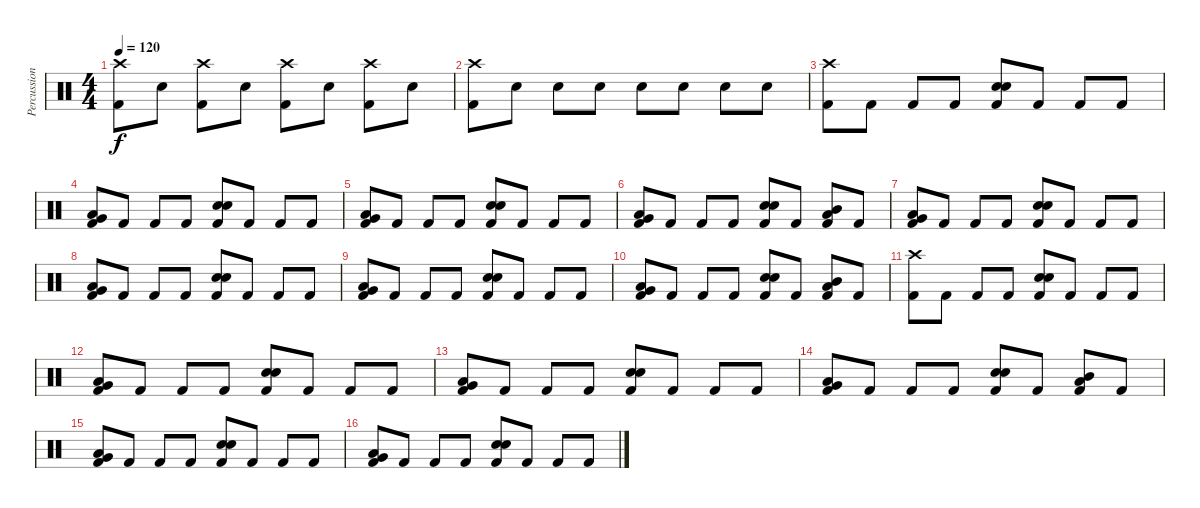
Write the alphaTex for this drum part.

\track ("Percussion" "Percussion") {instrument percussion}
\staff {score}
\articulation defaults
\ts (4 4)
\tempo 120
\clef neutral
\ks c
("Crash high (hit)" "Kick (hit) 2").8{dy f} "Electric Snare (hit)".8 ("Crash high (hit)" "Kick (hit) 2").8 "Electric Snare (hit)".8 ("Crash high (hit)" "Kick (hit) 2").8 "Electric Snare (hit)".8 ("Crash high (hit)" "Kick (hit) 2").8 "Electric Snare (hit)".8 |
("Crash high (hit)" "Kick (hit) 2").8 "Electric Snare (hit)".8 "Electric Snare (hit)".8 "Electric Snare (hit)".8 "Electric Snare (hit)".8 "Electric Snare (hit)".8 "Electric Snare (hit)".8 "Electric Snare (hit)".8 |
("Crash high (hit)" "Kick (hit) 2").8 "Kick (hit) 2".8 "Kick (hit) 2".8 "Kick (hit) 2".8 ("Electric Snare (hit)" "Electric Snare (hit)" "Kick (hit) 2").8{bu 120} "Kick (hit) 2".8 "Kick (hit) 2".8 "Kick (hit) 2".8 |
("Low Tom (hit)" "Very Low Tom (hit)" "Kick (hit) 2").8{bu 120} "Kick (hit) 2".8 "Kick (hit) 2".8 "Kick (hit) 2".8 ("Electric Snare (hit)" "Electric Snare (hit)" "Kick (hit) 2").8{bu 120} "Kick (hit) 2".8 "Kick (hit) 2".8 "Kick (hit) 2".8 |
("Low Tom (hit)" "Very Low Tom (hit)" "Kick (hit) 2").8{bu 120} "Kick (hit) 2".8 "Kick (hit) 2".8 "Kick (hit) 2".8 ("Electric Snare (hit)" "Electric Snare (hit)" "Kick (hit) 2").8{bu 120} "Kick (hit) 2".8 "Kick (hit) 2".8 "Kick (hit) 2".8 |
("Low Tom (hit)" "Very Low Tom (hit)" "Kick (hit) 2").8{bu 120} "Kick (hit) 2".8 "Kick (hit) 2".8 "Kick (hit) 2".8 ("Electric Snare (hit)" "Electric Snare (hit)" "Kick (hit) 2").8{bu 120} "Kick (hit) 2".8 ("Mid Tom (hit)" "Low Tom (hit)" "Kick (hit) 2").8{bu 120} "Kick (hit) 2".8 |
("Low Tom (hit)" "Very Low Tom (hit)" "Kick (hit) 2").8{bu 120} "Kick (hit) 2".8 "Kick (hit) 2".8 "Kick (hit) 2".8 ("Electric Snare (hit)" "Electric Snare (hit)" "Kick (hit) 2").8{bu 120} "Kick (hit) 2".8 "Kick (hit) 2".8 "Kick (hit) 2".8 |
("Low Tom (hit)" "Very Low Tom (hit)" "Kick (hit) 2").8{bu 120} "Kick (hit) 2".8 "Kick (hit) 2".8 "Kick (hit) 2".8 ("Electric Snare (hit)" "Electric Snare (hit)" "Kick (hit) 2").8{bu 120} "Kick (hit) 2".8 "Kick (hit) 2".8 "Kick (hit) 2".8 |
("Low Tom (hit)" "Very Low Tom (hit)" "Kick (hit) 2").8{bu 120} "Kick (hit) 2".8 "Kick (hit) 2".8 "Kick (hit) 2".8 ("Electric Snare (hit)" "Electric Snare (hit)" "Kick (hit) 2").8{bu 120} "Kick (hit) 2".8 "Kick (hit) 2".8 "Kick (hit) 2".8 |
("Low Tom (hit)" "Very Low Tom (hit)" "Kick (hit) 2").8{bu 120} "Kick (hit) 2".8 "Kick (hit) 2".8 "Kick (hit) 2".8 ("Electric Snare (hit)" "Electric Snare (hit)" "Kick (hit) 2").8{bu 120} "Kick (hit) 2".8 ("Mid Tom (hit)" "Low Tom (hit)" "Kick (hit) 2").8{bu 120} "Kick (hit) 2".8 |
("Crash high (hit)" "Kick (hit) 2").8 "Kick (hit) 2".8 "Kick (hit) 2".8 "Kick (hit) 2".8 ("Electric Snare (hit)" "Electric Snare (hit)" "Kick (hit) 2").8{bu 120} "Kick (hit) 2".8 "Kick (hit) 2".8 "Kick (hit) 2".8 |
("Low Tom (hit)" "Very Low Tom (hit)" "Kick (hit) 2").8{bu 120} "Kick (hit) 2".8 "Kick (hit) 2".8 "Kick (hit) 2".8 ("Electric Snare (hit)" "Electric Snare (hit)" "Kick (hit) 2").8{bu 120} "Kick (hit) 2".8 "Kick (hit) 2".8 "Kick (hit) 2".8 |
("Low Tom (hit)" "Very Low Tom (hit)" "Kick (hit) 2").8{bu 120} "Kick (hit) 2".8 "Kick (hit) 2".8 "Kick (hit) 2".8 ("Electric Snare (hit)" "Electric Snare (hit)" "Kick (hit) 2").8{bu 120} "Kick (hit) 2".8 "Kick (hit) 2".8 "Kick (hit) 2".8 |
("Low Tom (hit)" "Very Low Tom (hit)" "Kick (hit) 2").8{bu 120} "Kick (hit) 2".8 "Kick (hit) 2".8 "Kick (hit) 2".8 ("Electric Snare (hit)" "Electric Snare (hit)" "Kick (hit) 2").8{bu 120} "Kick (hit) 2".8 ("Mid Tom (hit)" "Low Tom (hit)" "Kick (hit) 2").8{bu 120} "Kick (hit) 2".8 |
("Low Tom (hit)" "Very Low Tom (hit)" "Kick (hit) 2").8{bu 120} "Kick (hit) 2".8 "Kick (hit) 2".8 "Kick (hit) 2".8 ("Electric Snare (hit)" "Electric Snare (hit)" "Kick (hit) 2").8{bu 120} "Kick (hit) 2".8 "Kick (hit) 2".8 "Kick (hit) 2".8 |
("Low Tom (hit)" "Very Low Tom (hit)" "Kick (hit) 2").8{bu 120} "Kick (hit) 2".8 "Kick (hit) 2".8 "Kick (hit) 2".8 ("Electric Snare (hit)" "Electric Snare (hit)" "Kick (hit) 2").8{bu 120} "Kick (hit) 2".8 "Kick (hit) 2".8 "Kick (hit) 2".8
